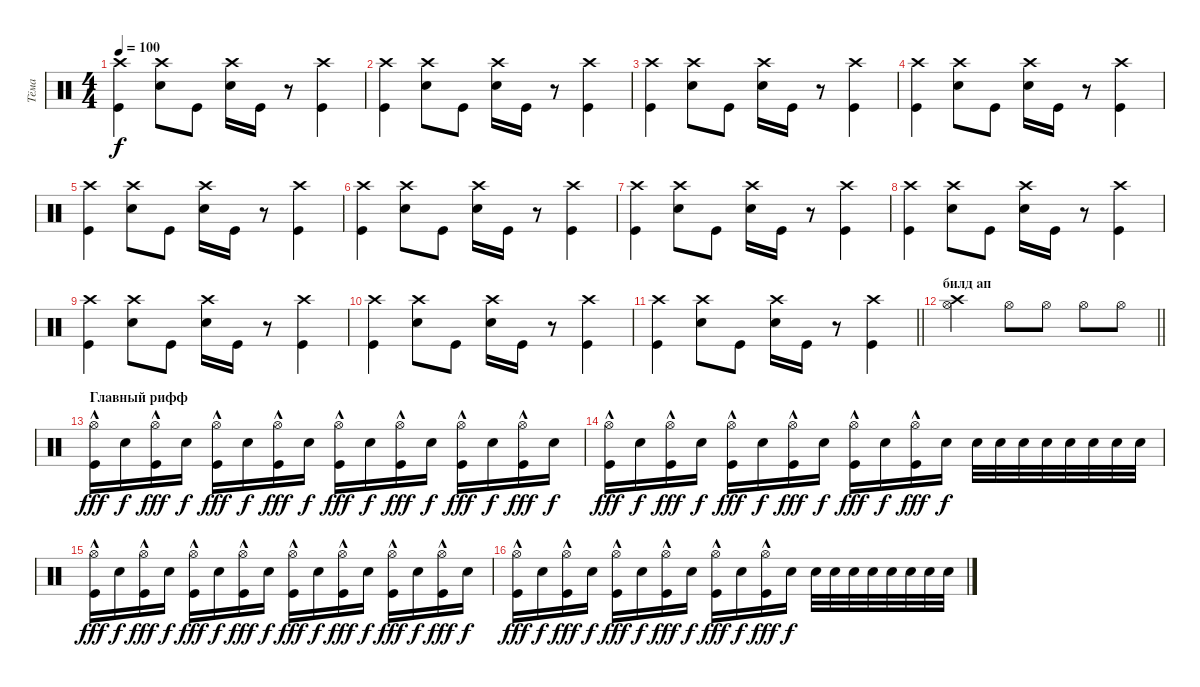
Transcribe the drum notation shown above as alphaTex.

\track ("Тёма" "Тёма") {instrument percussion}
\staff {score}
\articulation defaults
\ts (4 4)
\tempo 100
\clef neutral
\ks c
("Crash high (hit)" "Kick (hit)").4{dy f} ("Crash high (hit)" "Snare (hit) 2").8 "Kick (hit)".8 ("Crash high (hit)" "Snare (hit) 2").16 "Kick (hit)".16 r.8 ("Crash high (hit)" "Kick (hit)").4 |
("Crash high (hit)" "Kick (hit)").4 ("Crash high (hit)" "Snare (hit) 2").8 "Kick (hit)".8 ("Crash high (hit)" "Snare (hit) 2").16 "Kick (hit)".16 r.8 ("Crash high (hit)" "Kick (hit)").4 |
("Crash high (hit)" "Kick (hit)").4 ("Crash high (hit)" "Snare (hit) 2").8 "Kick (hit)".8 ("Crash high (hit)" "Snare (hit) 2").16 "Kick (hit)".16 r.8 ("Crash high (hit)" "Kick (hit)").4 |
("Crash high (hit)" "Kick (hit)").4 ("Crash high (hit)" "Snare (hit) 2").8 "Kick (hit)".8 ("Crash high (hit)" "Snare (hit) 2").16 "Kick (hit)".16 r.8 ("Crash high (hit)" "Kick (hit)").4 |
("Crash high (hit)" "Kick (hit)").4 ("Crash high (hit)" "Snare (hit) 2").8 "Kick (hit)".8 ("Crash high (hit)" "Snare (hit) 2").16 "Kick (hit)".16 r.8 ("Crash high (hit)" "Kick (hit)").4 |
("Crash high (hit)" "Kick (hit)").4 ("Crash high (hit)" "Snare (hit) 2").8 "Kick (hit)".8 ("Crash high (hit)" "Snare (hit) 2").16 "Kick (hit)".16 r.8 ("Crash high (hit)" "Kick (hit)").4 |
("Crash high (hit)" "Kick (hit)").4 ("Crash high (hit)" "Snare (hit) 2").8 "Kick (hit)".8 ("Crash high (hit)" "Snare (hit) 2").16 "Kick (hit)".16 r.8 ("Crash high (hit)" "Kick (hit)").4 |
("Crash high (hit)" "Kick (hit)").4 ("Crash high (hit)" "Snare (hit) 2").8 "Kick (hit)".8 ("Crash high (hit)" "Snare (hit) 2").16 "Kick (hit)".16 r.8 ("Crash high (hit)" "Kick (hit)").4 |
("Crash high (hit)" "Kick (hit)").4 ("Crash high (hit)" "Snare (hit) 2").8 "Kick (hit)".8 ("Crash high (hit)" "Snare (hit) 2").16 "Kick (hit)".16 r.8 ("Crash high (hit)" "Kick (hit)").4 |
("Crash high (hit)" "Kick (hit)").4 ("Crash high (hit)" "Snare (hit) 2").8 "Kick (hit)".8 ("Crash high (hit)" "Snare (hit) 2").16 "Kick (hit)".16 r.8 ("Crash high (hit)" "Kick (hit)").4 |
\barLineRight lightlight
("Crash high (hit)" "Kick (hit)").4 ("Crash high (hit)" "Snare (hit) 2").8 "Kick (hit)".8 ("Crash high (hit)" "Snare (hit) 2").16 "Kick (hit)".16 r.8 ("Crash high (hit)" "Kick (hit)").4 |
\section ("" "билд ап")
\barLineRight lightlight
("Hi-Hat (open)" "Crash high (hit)").2 "Hi-Hat (open)".8 "Hi-Hat (open)".8 "Hi-Hat (open)".8 "Hi-Hat (open)".8 |
\section ("" "Главный рифф")
("Hi-Hat (open)" "Kick (hit)"{hac}).16{dy fff} "Snare (hit) 2".16{dy f} ("Hi-Hat (open)" "Kick (hit)"{hac}).16{dy fff} "Snare (hit) 2".16{dy f} ("Hi-Hat (open)" "Kick (hit)"{hac}).16{dy fff} "Snare (hit) 2".16{dy f} ("Hi-Hat (open)" "Kick (hit)"{hac}).16{dy fff} "Snare (hit) 2".16{dy f} ("Hi-Hat (open)" "Kick (hit)"{hac}).16{dy fff} "Snare (hit) 2".16{dy f} ("Hi-Hat (open)" "Kick (hit)"{hac}).16{dy fff} "Snare (hit) 2".16{dy f} ("Hi-Hat (open)" "Kick (hit)"{hac}).16{dy fff} "Snare (hit) 2".16{dy f} ("Hi-Hat (open)" "Kick (hit)"{hac}).16{dy fff} "Snare (hit) 2".16{dy f} |
("Hi-Hat (open)" "Kick (hit)"{hac}).16{dy fff} "Snare (hit) 2".16{dy f} ("Hi-Hat (open)" "Kick (hit)"{hac}).16{dy fff} "Snare (hit) 2".16{dy f} ("Hi-Hat (open)" "Kick (hit)"{hac}).16{dy fff} "Snare (hit) 2".16{dy f} ("Hi-Hat (open)" "Kick (hit)"{hac}).16{dy fff} "Snare (hit) 2".16{dy f} ("Hi-Hat (open)" "Kick (hit)"{hac}).16{dy fff} "Snare (hit) 2".16{dy f} ("Hi-Hat (open)" "Kick (hit)"{hac}).16{dy fff} "Snare (hit) 2".16{dy f} "Snare (hit) 2".32 "Snare (hit) 2".32 "Snare (hit) 2".32 "Snare (hit) 2".32 "Snare (hit) 2".32 "Snare (hit) 2".32 "Snare (hit) 2".32 "Snare (hit) 2".32 |
("Hi-Hat (open)" "Kick (hit)"{hac}).16{dy fff} "Snare (hit) 2".16{dy f} ("Hi-Hat (open)" "Kick (hit)"{hac}).16{dy fff} "Snare (hit) 2".16{dy f} ("Hi-Hat (open)" "Kick (hit)"{hac}).16{dy fff} "Snare (hit) 2".16{dy f} ("Hi-Hat (open)" "Kick (hit)"{hac}).16{dy fff} "Snare (hit) 2".16{dy f} ("Hi-Hat (open)" "Kick (hit)"{hac}).16{dy fff} "Snare (hit) 2".16{dy f} ("Hi-Hat (open)" "Kick (hit)"{hac}).16{dy fff} "Snare (hit) 2".16{dy f} ("Hi-Hat (open)" "Kick (hit)"{hac}).16{dy fff} "Snare (hit) 2".16{dy f} ("Hi-Hat (open)" "Kick (hit)"{hac}).16{dy fff} "Snare (hit) 2".16{dy f} |
("Hi-Hat (open)" "Kick (hit)"{hac}).16{dy fff} "Snare (hit) 2".16{dy f} ("Hi-Hat (open)" "Kick (hit)"{hac}).16{dy fff} "Snare (hit) 2".16{dy f} ("Hi-Hat (open)" "Kick (hit)"{hac}).16{dy fff} "Snare (hit) 2".16{dy f} ("Hi-Hat (open)" "Kick (hit)"{hac}).16{dy fff} "Snare (hit) 2".16{dy f} ("Hi-Hat (open)" "Kick (hit)"{hac}).16{dy fff} "Snare (hit) 2".16{dy f} ("Hi-Hat (open)" "Kick (hit)"{hac}).16{dy fff} "Snare (hit) 2".16{dy f} "Snare (hit) 2".32 "Snare (hit) 2".32 "Snare (hit) 2".32 "Snare (hit) 2".32 "Snare (hit) 2".32 "Snare (hit) 2".32 "Snare (hit) 2".32 "Snare (hit) 2".32
